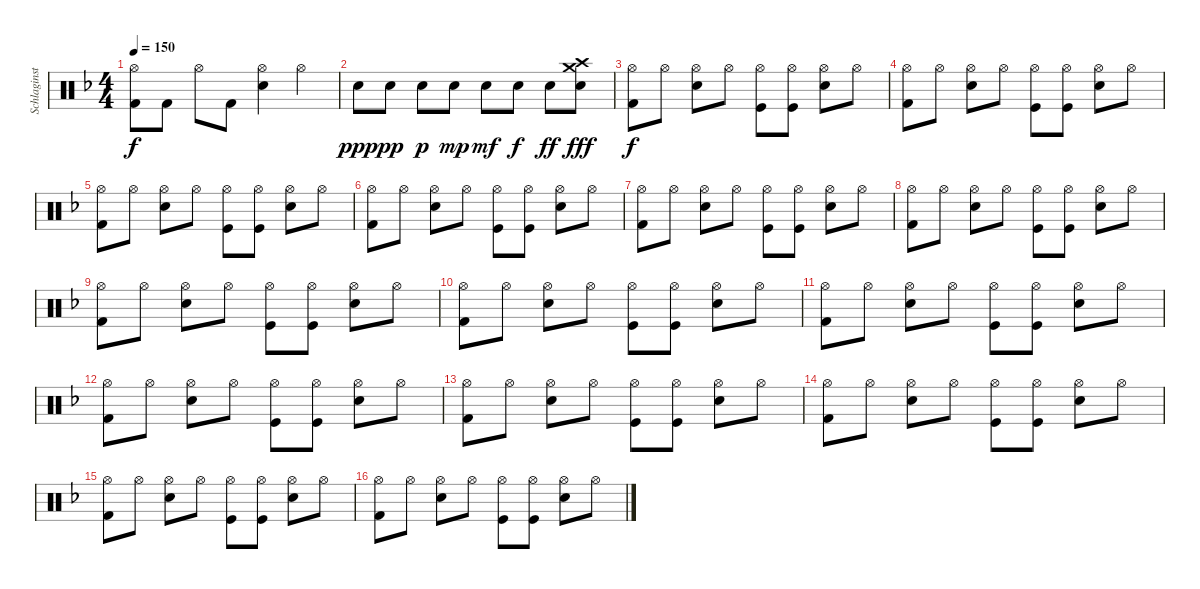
\track ("Schlaginstrumente - Auswahl" "Schlaginst") {instrument percussion}
\staff {score}
\articulation defaults
\ts (4 4)
\tempo 150
\clef neutral
\ks f
("Hi-Hat (open)" "Kick (hit) 2").8{dy f} "Kick (hit) 2".8 "Hi-Hat (open)".8 "Kick (hit) 2".8 ("Hi-Hat (open)" "Snare (hit) 2").4 "Hi-Hat (open)".4 |
"Snare (hit) 2".8{dy ppp} "Snare (hit) 2".8{dy pp} "Snare (hit) 2".8{dy p} "Snare (hit) 2".8{dy mp} "Snare (hit) 2".8{dy mf} "Snare (hit) 2".8{dy f} "Snare (hit) 2".8{dy ff} ("Snare (hit) 2" "Crash medium (hit)" "Crash high (hit)").8{dy fff} |
("Hi-Hat (open)" "Kick (hit) 2").8{dy f} "Hi-Hat (open)".8 ("Hi-Hat (open)" "Snare (hit) 2").8 "Hi-Hat (open)".8 ("Hi-Hat (open)" "Kick (hit)").8 ("Kick (hit)" "Hi-Hat (open)").8 ("Hi-Hat (open)" "Snare (hit) 2").8 "Hi-Hat (open)".8 |
("Hi-Hat (open)" "Kick (hit) 2").8 "Hi-Hat (open)".8 ("Hi-Hat (open)" "Snare (hit) 2").8 "Hi-Hat (open)".8 ("Hi-Hat (open)" "Kick (hit)").8 ("Kick (hit)" "Hi-Hat (open)").8 ("Hi-Hat (open)" "Snare (hit) 2").8 "Hi-Hat (open)".8 |
("Hi-Hat (open)" "Kick (hit) 2").8 "Hi-Hat (open)".8 ("Hi-Hat (open)" "Snare (hit) 2").8 "Hi-Hat (open)".8 ("Hi-Hat (open)" "Kick (hit)").8 ("Kick (hit)" "Hi-Hat (open)").8 ("Hi-Hat (open)" "Snare (hit) 2").8 "Hi-Hat (open)".8 |
("Hi-Hat (open)" "Kick (hit) 2").8 "Hi-Hat (open)".8 ("Hi-Hat (open)" "Snare (hit) 2").8 "Hi-Hat (open)".8 ("Hi-Hat (open)" "Kick (hit)").8 ("Kick (hit)" "Hi-Hat (open)").8 ("Hi-Hat (open)" "Snare (hit) 2").8 "Hi-Hat (open)".8 |
("Hi-Hat (open)" "Kick (hit) 2").8 "Hi-Hat (open)".8 ("Hi-Hat (open)" "Snare (hit) 2").8 "Hi-Hat (open)".8 ("Hi-Hat (open)" "Kick (hit)").8 ("Kick (hit)" "Hi-Hat (open)").8 ("Hi-Hat (open)" "Snare (hit) 2").8 "Hi-Hat (open)".8 |
("Hi-Hat (open)" "Kick (hit) 2").8 "Hi-Hat (open)".8 ("Hi-Hat (open)" "Snare (hit) 2").8 "Hi-Hat (open)".8 ("Hi-Hat (open)" "Kick (hit)").8 ("Kick (hit)" "Hi-Hat (open)").8 ("Hi-Hat (open)" "Snare (hit) 2").8 "Hi-Hat (open)".8 |
("Hi-Hat (open)" "Kick (hit) 2").8 "Hi-Hat (open)".8 ("Hi-Hat (open)" "Snare (hit) 2").8 "Hi-Hat (open)".8 ("Hi-Hat (open)" "Kick (hit)").8 ("Kick (hit)" "Hi-Hat (open)").8 ("Hi-Hat (open)" "Snare (hit) 2").8 "Hi-Hat (open)".8 |
("Hi-Hat (open)" "Kick (hit) 2").8 "Hi-Hat (open)".8 ("Hi-Hat (open)" "Snare (hit) 2").8 "Hi-Hat (open)".8 ("Hi-Hat (open)" "Kick (hit)").8 ("Kick (hit)" "Hi-Hat (open)").8 ("Hi-Hat (open)" "Snare (hit) 2").8 "Hi-Hat (open)".8 |
("Hi-Hat (open)" "Kick (hit) 2").8 "Hi-Hat (open)".8 ("Hi-Hat (open)" "Snare (hit) 2").8 "Hi-Hat (open)".8 ("Hi-Hat (open)" "Kick (hit)").8 ("Kick (hit)" "Hi-Hat (open)").8 ("Hi-Hat (open)" "Snare (hit) 2").8 "Hi-Hat (open)".8 |
("Hi-Hat (open)" "Kick (hit) 2").8 "Hi-Hat (open)".8 ("Hi-Hat (open)" "Snare (hit) 2").8 "Hi-Hat (open)".8 ("Hi-Hat (open)" "Kick (hit)").8 ("Kick (hit)" "Hi-Hat (open)").8 ("Hi-Hat (open)" "Snare (hit) 2").8 "Hi-Hat (open)".8 |
("Hi-Hat (open)" "Kick (hit) 2").8 "Hi-Hat (open)".8 ("Hi-Hat (open)" "Snare (hit) 2").8 "Hi-Hat (open)".8 ("Hi-Hat (open)" "Kick (hit)").8 ("Kick (hit)" "Hi-Hat (open)").8 ("Hi-Hat (open)" "Snare (hit) 2").8 "Hi-Hat (open)".8 |
("Hi-Hat (open)" "Kick (hit) 2").8 "Hi-Hat (open)".8 ("Hi-Hat (open)" "Snare (hit) 2").8 "Hi-Hat (open)".8 ("Hi-Hat (open)" "Kick (hit)").8 ("Kick (hit)" "Hi-Hat (open)").8 ("Hi-Hat (open)" "Snare (hit) 2").8 "Hi-Hat (open)".8 |
("Hi-Hat (open)" "Kick (hit) 2").8 "Hi-Hat (open)".8 ("Hi-Hat (open)" "Snare (hit) 2").8 "Hi-Hat (open)".8 ("Hi-Hat (open)" "Kick (hit)").8 ("Kick (hit)" "Hi-Hat (open)").8 ("Hi-Hat (open)" "Snare (hit) 2").8 "Hi-Hat (open)".8 |
("Hi-Hat (open)" "Kick (hit) 2").8 "Hi-Hat (open)".8 ("Hi-Hat (open)" "Snare (hit) 2").8 "Hi-Hat (open)".8 ("Hi-Hat (open)" "Kick (hit)").8 ("Kick (hit)" "Hi-Hat (open)").8 ("Hi-Hat (open)" "Snare (hit) 2").8 "Hi-Hat (open)".8
